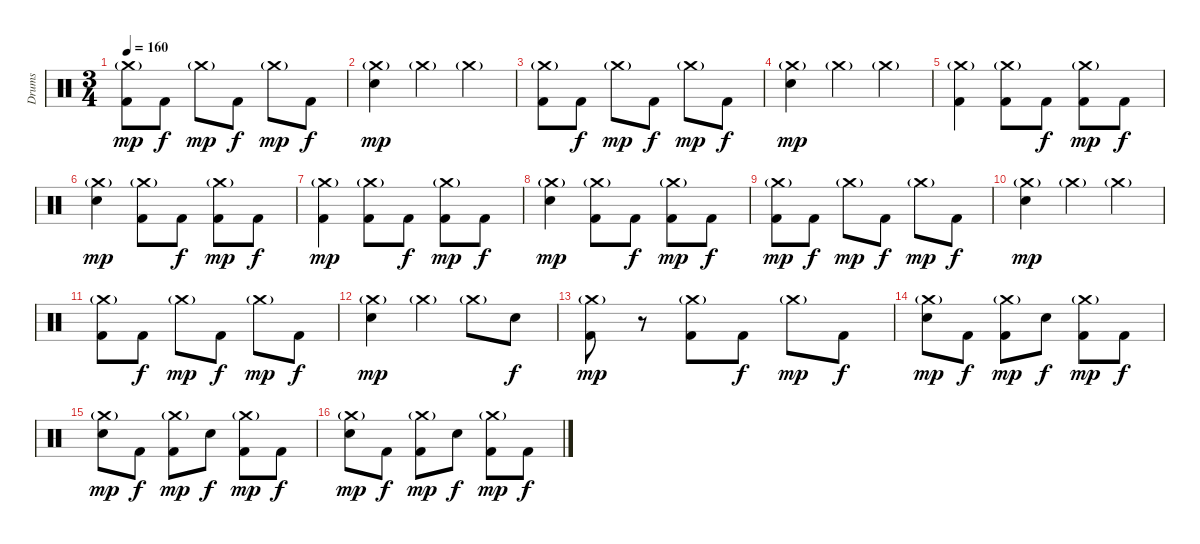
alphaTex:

\track ("Drums" "Drums") {instrument percussion}
\staff {score}
\articulation defaults
\ts (3 4)
\tempo 160
\clef neutral
\ks c
("Crash medium (hit)"{g} "Kick (hit) 2").8{dy mp} "Kick (hit) 2".8{dy f} "Crash medium (hit)"{g}.8{dy mp} "Kick (hit) 2".8{dy f} "Crash medium (hit)"{g}.8{dy mp} "Kick (hit) 2".8{dy f} |
("Crash medium (hit)"{g} "Snare (hit) 2").4{dy mp} "Crash medium (hit)"{g}.4 "Crash medium (hit)"{g}.4 |
("Crash medium (hit)"{g} "Kick (hit) 2").8 "Kick (hit) 2".8{dy f} "Crash medium (hit)"{g}.8{dy mp} "Kick (hit) 2".8{dy f} "Crash medium (hit)"{g}.8{dy mp} "Kick (hit) 2".8{dy f} |
("Crash medium (hit)"{g} "Snare (hit) 2").4{dy mp} "Crash medium (hit)"{g}.4 "Crash medium (hit)"{g}.4 |
("Crash medium (hit)"{g} "Kick (hit) 2").4 ("Crash medium (hit)"{g} "Kick (hit) 2").8 "Kick (hit) 2".8{dy f} ("Crash medium (hit)"{g} "Kick (hit) 2").8{dy mp} "Kick (hit) 2".8{dy f} |
("Crash medium (hit)"{g} "Snare (hit) 2").4{dy mp} ("Crash medium (hit)"{g} "Kick (hit) 2").8 "Kick (hit) 2".8{dy f} ("Crash medium (hit)"{g} "Kick (hit) 2").8{dy mp} "Kick (hit) 2".8{dy f} |
("Crash medium (hit)"{g} "Kick (hit) 2").4{dy mp} ("Crash medium (hit)"{g} "Kick (hit) 2").8 "Kick (hit) 2".8{dy f} ("Crash medium (hit)"{g} "Kick (hit) 2").8{dy mp} "Kick (hit) 2".8{dy f} |
("Crash medium (hit)"{g} "Snare (hit) 2").4{dy mp} ("Crash medium (hit)"{g} "Kick (hit) 2").8 "Kick (hit) 2".8{dy f} ("Crash medium (hit)"{g} "Kick (hit) 2").8{dy mp} "Kick (hit) 2".8{dy f} |
("Crash medium (hit)"{g} "Kick (hit) 2").8{dy mp} "Kick (hit) 2".8{dy f} "Crash medium (hit)"{g}.8{dy mp} "Kick (hit) 2".8{dy f} "Crash medium (hit)"{g}.8{dy mp} "Kick (hit) 2".8{dy f} |
("Crash medium (hit)"{g} "Snare (hit) 2").4{dy mp} "Crash medium (hit)"{g}.4 "Crash medium (hit)"{g}.4 |
("Crash medium (hit)"{g} "Kick (hit) 2").8 "Kick (hit) 2".8{dy f} "Crash medium (hit)"{g}.8{dy mp} "Kick (hit) 2".8{dy f} "Crash medium (hit)"{g}.8{dy mp} "Kick (hit) 2".8{dy f} |
("Crash medium (hit)"{g} "Snare (hit) 2").4{dy mp} "Crash medium (hit)"{g}.4 "Crash medium (hit)"{g}.8 "Snare (hit) 2".8{dy f} |
("Crash medium (hit)"{g} "Kick (hit) 2").8{dy mp} r.8 ("Crash medium (hit)"{g} "Kick (hit) 2").8 "Kick (hit) 2".8{dy f} "Crash medium (hit)"{g}.8{dy mp} "Kick (hit) 2".8{dy f} |
("Crash medium (hit)"{g} "Snare (hit) 2").8{dy mp} "Kick (hit) 2".8{dy f} ("Crash medium (hit)"{g} "Kick (hit) 2").8{dy mp} "Snare (hit) 2".8{dy f} ("Crash medium (hit)"{g} "Kick (hit) 2").8{dy mp} "Kick (hit) 2".8{dy f} |
("Crash medium (hit)"{g} "Snare (hit) 2").8{dy mp} "Kick (hit) 2".8{dy f} ("Crash medium (hit)"{g} "Kick (hit) 2").8{dy mp} "Snare (hit) 2".8{dy f} ("Crash medium (hit)"{g} "Kick (hit) 2").8{dy mp} "Kick (hit) 2".8{dy f} |
("Crash medium (hit)"{g} "Snare (hit) 2").8{dy mp} "Kick (hit) 2".8{dy f} ("Crash medium (hit)"{g} "Kick (hit) 2").8{dy mp} "Snare (hit) 2".8{dy f} ("Crash medium (hit)"{g} "Kick (hit) 2").8{dy mp} "Kick (hit) 2".8{dy f}
